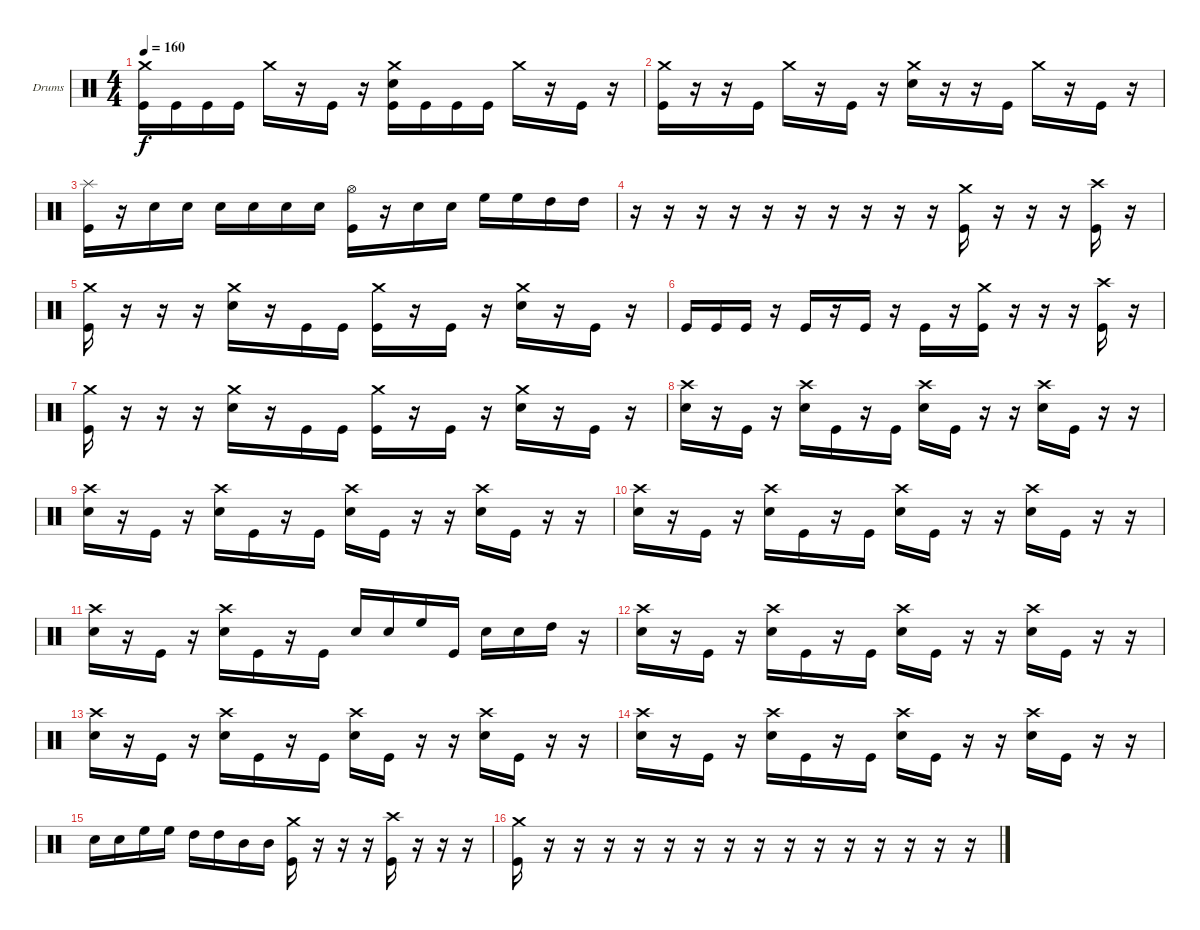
\bracketExtendMode groupsimilarinstruments
\firstSystemTrackNameOrientation horizontal
\otherSystemsTrackNameOrientation horizontal
\track ("Drumkit" "Drums") {solo instrument percussion}
\staff {score}
\articulation defaults
\ts (4 4)
\tempo 160
\clef neutral
\ks c
("Crash medium (hit)" "Kick (hit)").16{dy f} "Kick (hit)".16 "Kick (hit)".16 "Kick (hit)".16 "Crash medium (hit)".16 r.16 "Kick (hit)".16 r.16 ("Crash medium (hit)" "Snare (hit) 2" "Kick (hit)").16 "Kick (hit)".16 "Kick (hit)".16 "Kick (hit)".16 "Crash medium (hit)".16 r.16 "Kick (hit)".16 r.16 |
("Crash medium (hit)" "Kick (hit)").16 r.16 r.16 "Kick (hit)".16 "Crash medium (hit)".16 r.16 "Kick (hit)".16 r.16 ("Crash medium (hit)" "Snare (hit) 2").16 r.16 r.16 "Kick (hit)".16 "Crash medium (hit)".16 r.16 "Kick (hit)".16 r.16 |
("Splash (hit)" "Kick (hit)").16 r.16 "Snare (hit) 2".16 "Snare (hit) 2".16 "Snare (hit) 2".16 "Snare (hit) 2".16 "Snare (hit) 2".16 "Snare (hit) 2".16 ("Hi-Hat (open)" "Kick (hit)").16 r.16 "Snare (hit) 2".16 "Snare (hit) 2".16 "High Floor Tom (hit)".16 "High Floor Tom (hit)".16 "High Tom (hit)".16 "High Tom (hit)".16 |
r.16 r.16 r.16 r.16 r.16 r.16 r.16 r.16 r.16 r.16 ("Crash medium (hit)" "Kick (hit)").16 r.16 r.16 r.16 ("Crash high (hit)" "Kick (hit)").16 r.16 |
("Crash medium (hit)" "Kick (hit)").16 r.16 r.16 r.16 ("Crash medium (hit)" "Snare (hit) 2").16 r.16 "Kick (hit)".16 "Kick (hit)".16 ("Crash medium (hit)" "Kick (hit)").16 r.16 "Kick (hit)".16 r.16 ("Crash medium (hit)" "Snare (hit) 2").16 r.16 "Kick (hit)".16 r.16 |
"Kick (hit)".16 "Kick (hit)".16 "Kick (hit)".16 r.16 "Kick (hit)".16 r.16 "Kick (hit)".16 r.16 "Kick (hit)".16 r.16 ("Crash medium (hit)" "Kick (hit)").16 r.16 r.16 r.16 ("Crash high (hit)" "Kick (hit)").16 r.16 |
("Crash medium (hit)" "Kick (hit)").16 r.16 r.16 r.16 ("Crash medium (hit)" "Snare (hit) 2").16 r.16 "Kick (hit)".16 "Kick (hit)".16 ("Crash medium (hit)" "Kick (hit)").16 r.16 "Kick (hit)".16 r.16 ("Crash medium (hit)" "Snare (hit) 2").16 r.16 "Kick (hit)".16 r.16 |
("Crash high (hit)" "Snare (hit) 2").16 r.16 "Kick (hit)".16 r.16 ("Crash high (hit)" "Snare (hit) 2").16 "Kick (hit)".16 r.16 "Kick (hit)".16 ("Crash high (hit)" "Snare (hit) 2").16 "Kick (hit)".16 r.16 r.16 ("Crash high (hit)" "Snare (hit) 2").16 "Kick (hit)".16 r.16 r.16 |
("Crash high (hit)" "Snare (hit) 2").16 r.16 "Kick (hit)".16 r.16 ("Crash high (hit)" "Snare (hit) 2").16 "Kick (hit)".16 r.16 "Kick (hit)".16 ("Crash high (hit)" "Snare (hit) 2").16 "Kick (hit)".16 r.16 r.16 ("Crash high (hit)" "Snare (hit) 2").16 "Kick (hit)".16 r.16 r.16 |
("Crash high (hit)" "Snare (hit) 2").16 r.16 "Kick (hit)".16 r.16 ("Crash high (hit)" "Snare (hit) 2").16 "Kick (hit)".16 r.16 "Kick (hit)".16 ("Crash high (hit)" "Snare (hit) 2").16 "Kick (hit)".16 r.16 r.16 ("Crash high (hit)" "Snare (hit) 2").16 "Kick (hit)".16 r.16 r.16 |
("Crash high (hit)" "Snare (hit) 2").16 r.16 "Kick (hit)".16 r.16 ("Crash high (hit)" "Snare (hit) 2").16 "Kick (hit)".16 r.16 "Kick (hit)".16 "Snare (hit) 2".16 "Snare (hit) 2".16 "High Floor Tom (hit)".16 "Kick (hit)".16 "Snare (hit) 2".16 "Snare (hit) 2".16 "High Tom (hit)".16 r.16 |
("Crash high (hit)" "Snare (hit) 2").16 r.16 "Kick (hit)".16 r.16 ("Crash high (hit)" "Snare (hit) 2").16 "Kick (hit)".16 r.16 "Kick (hit)".16 ("Crash high (hit)" "Snare (hit) 2").16 "Kick (hit)".16 r.16 r.16 ("Crash high (hit)" "Snare (hit) 2").16 "Kick (hit)".16 r.16 r.16 |
("Crash high (hit)" "Snare (hit) 2").16 r.16 "Kick (hit)".16 r.16 ("Crash high (hit)" "Snare (hit) 2").16 "Kick (hit)".16 r.16 "Kick (hit)".16 ("Crash high (hit)" "Snare (hit) 2").16 "Kick (hit)".16 r.16 r.16 ("Crash high (hit)" "Snare (hit) 2").16 "Kick (hit)".16 r.16 r.16 |
("Crash high (hit)" "Snare (hit) 2").16 r.16 "Kick (hit)".16 r.16 ("Crash high (hit)" "Snare (hit) 2").16 "Kick (hit)".16 r.16 "Kick (hit)".16 ("Crash high (hit)" "Snare (hit) 2").16 "Kick (hit)".16 r.16 r.16 ("Crash high (hit)" "Snare (hit) 2").16 "Kick (hit)".16 r.16 r.16 |
"Snare (hit) 2".16 "Snare (hit) 2".16 "High Floor Tom (hit)".16 "High Floor Tom (hit)".16 "High Tom (hit)".16 "High Tom (hit)".16 "Mid Tom (hit)".16 "Mid Tom (hit)".16 ("Crash medium (hit)" "Kick (hit)").16 r.16 r.16 r.16 ("Crash high (hit)" "Kick (hit)").16 r.16 r.16 r.16 |
("Crash medium (hit)" "Kick (hit)").16 r.16 r.16 r.16 r.16 r.16 r.16 r.16 r.16 r.16 r.16 r.16 r.16 r.16 r.16 r.16
